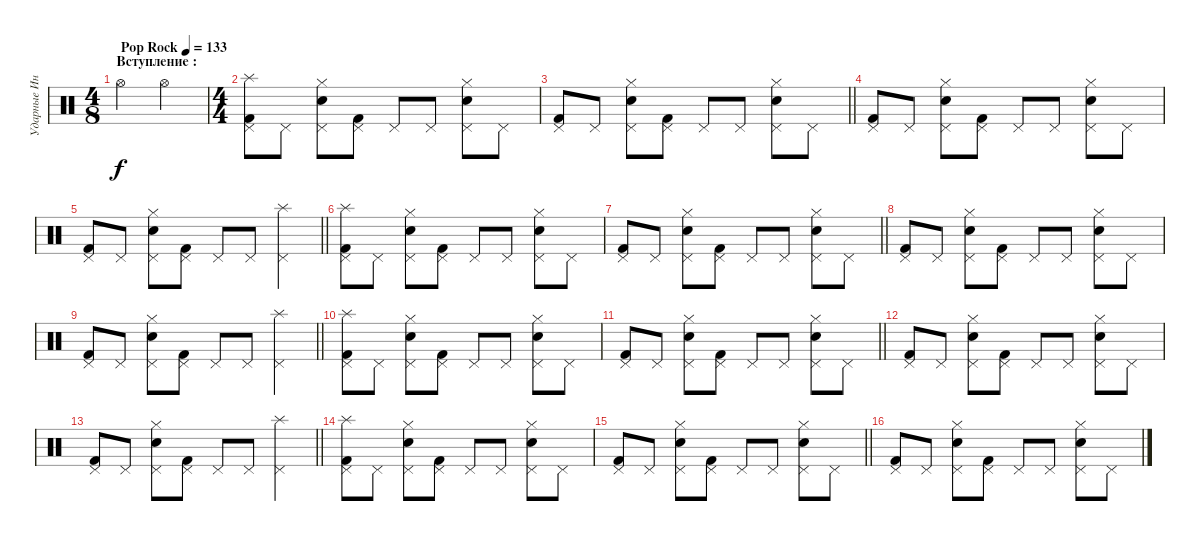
\track ("Ударные Инструменты" "Ударные Ин") {instrument percussion}
\staff {score}
\articulation defaults
\ts (4 8)
\section ("" "Вступление :")
\tempo (133 "Pop Rock")
\clef neutral
\ks c "Hi-Hat (open)".4{dy f} "Hi-Hat (open)".4
|
\ts (4 4)
("Splash (hit)" "Pedal Hi-Hat (hit)" "Kick (hit) 2").8 "Pedal Hi-Hat (hit)".8 ("Electric Snare (hit)" "Pedal Hi-Hat (hit)" "Hi-Hat (closed)").8 ("Pedal Hi-Hat (hit)" "Kick (hit) 2").8 "Pedal Hi-Hat (hit)".8 "Pedal Hi-Hat (hit)".8 ("Electric Snare (hit)" "Pedal Hi-Hat (hit)" "Hi-Hat (closed)").8 "Pedal Hi-Hat (hit)".8 |
\barLineRight lightlight
("Pedal Hi-Hat (hit)" "Kick (hit) 2").8 "Pedal Hi-Hat (hit)".8 ("Electric Snare (hit)" "Pedal Hi-Hat (hit)" "Hi-Hat (closed)").8 ("Pedal Hi-Hat (hit)" "Kick (hit) 2").8 "Pedal Hi-Hat (hit)".8 "Pedal Hi-Hat (hit)".8 ("Electric Snare (hit)" "Pedal Hi-Hat (hit)" "Hi-Hat (closed)").8 "Pedal Hi-Hat (hit)".8 |
("Pedal Hi-Hat (hit)" "Kick (hit) 2").8 "Pedal Hi-Hat (hit)".8 ("Electric Snare (hit)" "Pedal Hi-Hat (hit)" "Hi-Hat (closed)").8 ("Pedal Hi-Hat (hit)" "Kick (hit) 2").8 "Pedal Hi-Hat (hit)".8 "Pedal Hi-Hat (hit)".8 ("Electric Snare (hit)" "Pedal Hi-Hat (hit)" "Hi-Hat (closed)").8 "Pedal Hi-Hat (hit)".8 |
\barLineRight lightlight
("Pedal Hi-Hat (hit)" "Kick (hit) 2").8 "Pedal Hi-Hat (hit)".8 ("Electric Snare (hit)" "Pedal Hi-Hat (hit)" "Hi-Hat (closed)").8 ("Pedal Hi-Hat (hit)" "Kick (hit) 2").8 "Pedal Hi-Hat (hit)".8 "Pedal Hi-Hat (hit)".8 ("Splash (hit)" "Pedal Hi-Hat (hit)").4 |
("Splash (hit)" "Pedal Hi-Hat (hit)" "Kick (hit) 2").8 "Pedal Hi-Hat (hit)".8 ("Electric Snare (hit)" "Pedal Hi-Hat (hit)" "Hi-Hat (closed)").8 ("Pedal Hi-Hat (hit)" "Kick (hit) 2").8 "Pedal Hi-Hat (hit)".8 "Pedal Hi-Hat (hit)".8 ("Electric Snare (hit)" "Pedal Hi-Hat (hit)" "Hi-Hat (closed)").8 "Pedal Hi-Hat (hit)".8 |
\barLineRight lightlight
("Pedal Hi-Hat (hit)" "Kick (hit) 2").8 "Pedal Hi-Hat (hit)".8 ("Electric Snare (hit)" "Pedal Hi-Hat (hit)" "Hi-Hat (closed)").8 ("Pedal Hi-Hat (hit)" "Kick (hit) 2").8 "Pedal Hi-Hat (hit)".8 "Pedal Hi-Hat (hit)".8 ("Electric Snare (hit)" "Pedal Hi-Hat (hit)" "Hi-Hat (closed)").8 "Pedal Hi-Hat (hit)".8 |
("Pedal Hi-Hat (hit)" "Kick (hit) 2").8 "Pedal Hi-Hat (hit)".8 ("Electric Snare (hit)" "Pedal Hi-Hat (hit)" "Hi-Hat (closed)").8 ("Pedal Hi-Hat (hit)" "Kick (hit) 2").8 "Pedal Hi-Hat (hit)".8 "Pedal Hi-Hat (hit)".8 ("Electric Snare (hit)" "Pedal Hi-Hat (hit)" "Hi-Hat (closed)").8 "Pedal Hi-Hat (hit)".8 |
\barLineRight lightlight
("Pedal Hi-Hat (hit)" "Kick (hit) 2").8 "Pedal Hi-Hat (hit)".8 ("Electric Snare (hit)" "Pedal Hi-Hat (hit)" "Hi-Hat (closed)").8 ("Pedal Hi-Hat (hit)" "Kick (hit) 2").8 "Pedal Hi-Hat (hit)".8 "Pedal Hi-Hat (hit)".8 ("Splash (hit)" "Pedal Hi-Hat (hit)").4 |
("Splash (hit)" "Pedal Hi-Hat (hit)" "Kick (hit) 2").8 "Pedal Hi-Hat (hit)".8 ("Electric Snare (hit)" "Pedal Hi-Hat (hit)" "Hi-Hat (closed)").8 ("Pedal Hi-Hat (hit)" "Kick (hit) 2").8 "Pedal Hi-Hat (hit)".8 "Pedal Hi-Hat (hit)".8 ("Electric Snare (hit)" "Pedal Hi-Hat (hit)" "Hi-Hat (closed)").8 "Pedal Hi-Hat (hit)".8 |
\barLineRight lightlight
("Pedal Hi-Hat (hit)" "Kick (hit) 2").8 "Pedal Hi-Hat (hit)".8 ("Electric Snare (hit)" "Pedal Hi-Hat (hit)" "Hi-Hat (closed)").8 ("Pedal Hi-Hat (hit)" "Kick (hit) 2").8 "Pedal Hi-Hat (hit)".8 "Pedal Hi-Hat (hit)".8 ("Electric Snare (hit)" "Pedal Hi-Hat (hit)" "Hi-Hat (closed)").8 "Pedal Hi-Hat (hit)".8 |
("Pedal Hi-Hat (hit)" "Kick (hit) 2").8 "Pedal Hi-Hat (hit)".8 ("Electric Snare (hit)" "Pedal Hi-Hat (hit)" "Hi-Hat (closed)").8 ("Pedal Hi-Hat (hit)" "Kick (hit) 2").8 "Pedal Hi-Hat (hit)".8 "Pedal Hi-Hat (hit)".8 ("Electric Snare (hit)" "Pedal Hi-Hat (hit)" "Hi-Hat (closed)").8 "Pedal Hi-Hat (hit)".8 |
\barLineRight lightlight
("Pedal Hi-Hat (hit)" "Kick (hit) 2").8 "Pedal Hi-Hat (hit)".8 ("Electric Snare (hit)" "Pedal Hi-Hat (hit)" "Hi-Hat (closed)").8 ("Pedal Hi-Hat (hit)" "Kick (hit) 2").8 "Pedal Hi-Hat (hit)".8 "Pedal Hi-Hat (hit)".8 ("Splash (hit)" "Pedal Hi-Hat (hit)").4 |
("Splash (hit)" "Pedal Hi-Hat (hit)" "Kick (hit) 2").8 "Pedal Hi-Hat (hit)".8 ("Electric Snare (hit)" "Pedal Hi-Hat (hit)" "Hi-Hat (closed)").8 ("Pedal Hi-Hat (hit)" "Kick (hit) 2").8 "Pedal Hi-Hat (hit)".8 "Pedal Hi-Hat (hit)".8 ("Electric Snare (hit)" "Pedal Hi-Hat (hit)" "Hi-Hat (closed)").8 "Pedal Hi-Hat (hit)".8 |
\barLineRight lightlight
("Pedal Hi-Hat (hit)" "Kick (hit) 2").8 "Pedal Hi-Hat (hit)".8 ("Electric Snare (hit)" "Pedal Hi-Hat (hit)" "Hi-Hat (closed)").8 ("Pedal Hi-Hat (hit)" "Kick (hit) 2").8 "Pedal Hi-Hat (hit)".8 "Pedal Hi-Hat (hit)".8 ("Electric Snare (hit)" "Pedal Hi-Hat (hit)" "Hi-Hat (closed)").8 "Pedal Hi-Hat (hit)".8 |
("Pedal Hi-Hat (hit)" "Kick (hit) 2").8 "Pedal Hi-Hat (hit)".8 ("Electric Snare (hit)" "Pedal Hi-Hat (hit)" "Hi-Hat (closed)").8 ("Pedal Hi-Hat (hit)" "Kick (hit) 2").8 "Pedal Hi-Hat (hit)".8 "Pedal Hi-Hat (hit)".8 ("Electric Snare (hit)" "Pedal Hi-Hat (hit)" "Hi-Hat (closed)").8 "Pedal Hi-Hat (hit)".8
